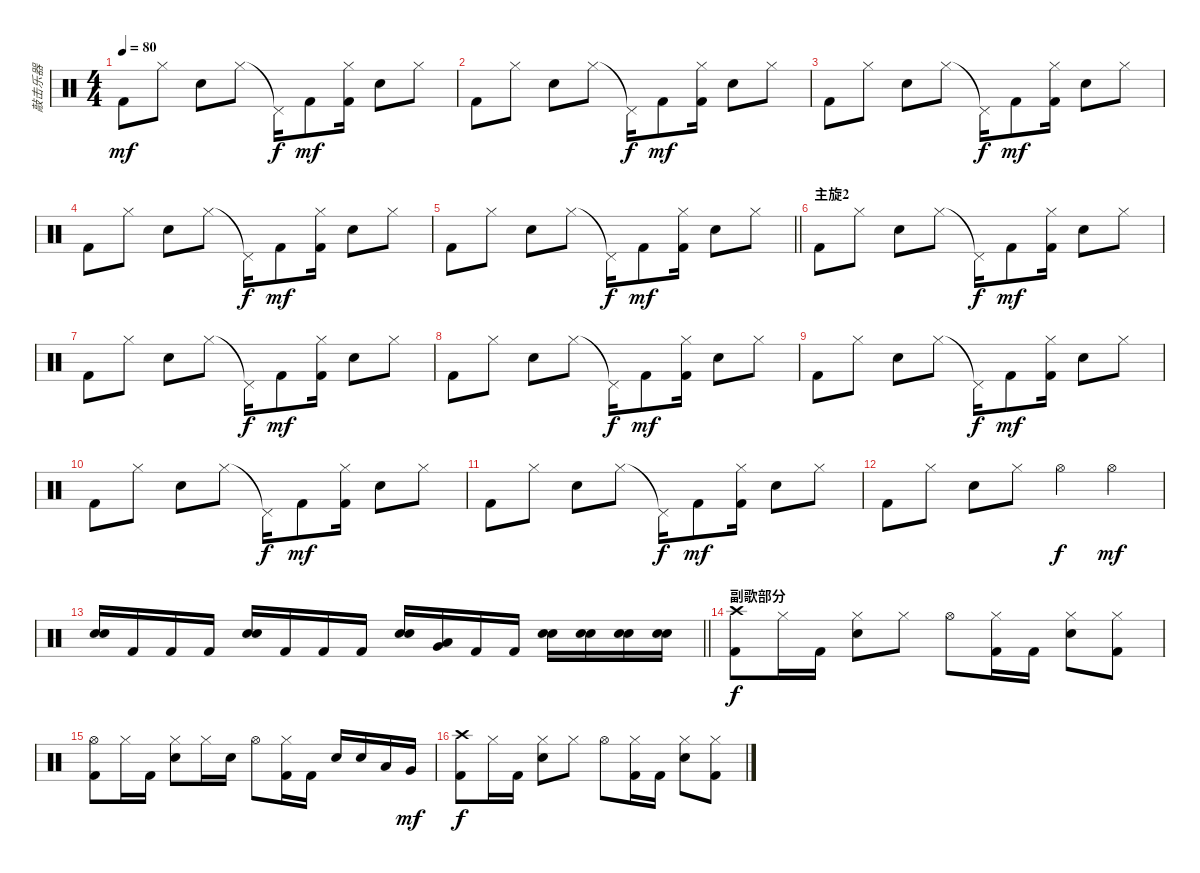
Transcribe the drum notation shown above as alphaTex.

\track ("敲击乐器" "敲击乐器") {instrument percussion}
\staff {score}
\articulation defaults
\ts (4 4)
\tempo 80
\clef neutral
\ks c "Kick (hit) 2".8{dy mf} "Hi-Hat (closed)".8 "Snare (hit) 2".8 "Hi-Hat (closed)".8 "Pedal Hi-Hat (hit)"{t}.16{dy f} "Kick (hit) 2".8{dy mf}
("Hi-Hat (closed)" "Kick (hit) 2").16 "Snare (hit) 2".8 "Hi-Hat (closed)".8 |
"Kick (hit) 2".8 "Hi-Hat (closed)".8 "Snare (hit) 2".8 "Hi-Hat (closed)".8 "Pedal Hi-Hat (hit)"{t}.16{dy f} "Kick (hit) 2".8{dy mf} ("Hi-Hat (closed)" "Kick (hit) 2").16 "Snare (hit) 2".8 "Hi-Hat (closed)".8 |
"Kick (hit) 2".8 "Hi-Hat (closed)".8 "Snare (hit) 2".8 "Hi-Hat (closed)".8 "Pedal Hi-Hat (hit)"{t}.16{dy f} "Kick (hit) 2".8{dy mf} ("Hi-Hat (closed)" "Kick (hit) 2").16 "Snare (hit) 2".8 "Hi-Hat (closed)".8 |
"Kick (hit) 2".8 "Hi-Hat (closed)".8 "Snare (hit) 2".8 "Hi-Hat (closed)".8 "Pedal Hi-Hat (hit)"{t}.16{dy f} "Kick (hit) 2".8{dy mf} ("Hi-Hat (closed)" "Kick (hit) 2").16 "Snare (hit) 2".8 "Hi-Hat (closed)".8 |
\barLineRight lightlight "Kick (hit) 2".8 "Hi-Hat (closed)".8 "Snare (hit) 2".8 "Hi-Hat (closed)".8 "Pedal Hi-Hat (hit)"{t}.16{dy f} "Kick (hit) 2".8{dy mf}
("Hi-Hat (closed)" "Kick (hit) 2").16 "Snare (hit) 2".8 "Hi-Hat (closed)".8 |
\section ("" "主旋2")
"Kick (hit) 2".8 "Hi-Hat (closed)".8 "Snare (hit) 2".8 "Hi-Hat (closed)".8 "Pedal Hi-Hat (hit)"{t}.16{dy f} "Kick (hit) 2".8{dy mf} ("Hi-Hat (closed)" "Kick (hit) 2").16 "Snare (hit) 2".8 "Hi-Hat (closed)".8 |
"Kick (hit) 2".8 "Hi-Hat (closed)".8 "Snare (hit) 2".8 "Hi-Hat (closed)".8 "Pedal Hi-Hat (hit)"{t}.16{dy f} "Kick (hit) 2".8{dy mf} ("Hi-Hat (closed)" "Kick (hit) 2").16 "Snare (hit) 2".8 "Hi-Hat (closed)".8 |
"Kick (hit) 2".8 "Hi-Hat (closed)".8 "Snare (hit) 2".8 "Hi-Hat (closed)".8 "Pedal Hi-Hat (hit)"{t}.16{dy f} "Kick (hit) 2".8{dy mf} ("Hi-Hat (closed)" "Kick (hit) 2").16 "Snare (hit) 2".8 "Hi-Hat (closed)".8 |
"Kick (hit) 2".8 "Hi-Hat (closed)".8 "Snare (hit) 2".8 "Hi-Hat (closed)".8 "Pedal Hi-Hat (hit)"{t}.16{dy f} "Kick (hit) 2".8{dy mf} ("Hi-Hat (closed)" "Kick (hit) 2").16 "Snare (hit) 2".8 "Hi-Hat (closed)".8 |
"Kick (hit) 2".8 "Hi-Hat (closed)".8 "Snare (hit) 2".8 "Hi-Hat (closed)".8 "Pedal Hi-Hat (hit)"{t}.16{dy f} "Kick (hit) 2".8{dy mf} ("Hi-Hat (closed)" "Kick (hit) 2").16 "Snare (hit) 2".8 "Hi-Hat (closed)".8 |
"Kick (hit) 2".8 "Hi-Hat (closed)".8 "Snare (hit) 2".8 "Hi-Hat (closed)".8 "Pedal Hi-Hat (hit)"{t}.16{dy f} "Kick (hit) 2".8{dy mf} ("Hi-Hat (closed)" "Kick (hit) 2").16 "Snare (hit) 2".8 "Hi-Hat (closed)".8 |
"Kick (hit) 2".8 "Hi-Hat (closed)".8 "Snare (hit) 2".8 "Hi-Hat (closed)".8 "Hi-Hat (open)".4{dy f} "Hi-Hat (open)".4{dy mf} |
\barLineRight lightlight
("Electric Snare (hit)" "Snare (hit) 2").16 "Kick (hit) 2".16 "Kick (hit) 2".16 "Kick (hit) 2".16 ("Electric Snare (hit)" "Snare (hit) 2").16 "Kick (hit) 2".16 "Kick (hit) 2".16 "Kick (hit) 2".16 ("Electric Snare (hit)" "Snare (hit) 2").16 ("Very Low Tom (hit)" "Low Tom (hit)").16 "Kick (hit) 2".16 "Kick (hit) 2".16 ("Electric Snare (hit)" "Snare (hit) 2").16 ("Electric Snare (hit)" "Snare (hit) 2").16 ("Electric Snare (hit)" "Snare (hit) 2").16 ("Electric Snare (hit)" "Snare (hit) 2").16 |
\section ("" "副歌部分")
("Crash high (hit)" "Kick (hit) 2").8{dy f} "Hi-Hat (closed)".16 "Kick (hit) 2".16 ("Hi-Hat (closed)" "Snare (hit) 2").8 "Hi-Hat (closed)".8 "Hi-Hat (open)".8 ("Hi-Hat (closed)" "Kick (hit) 2").16 "Kick (hit) 2".16 ("Hi-Hat (closed)" "Snare (hit) 2").8 ("Hi-Hat (closed)" "Kick (hit) 2").8 |
("Hi-Hat (open)" "Kick (hit) 2").8 "Hi-Hat (closed)".16 "Kick (hit) 2".16 ("Hi-Hat (closed)" "Snare (hit) 2").8 "Hi-Hat (closed)".16 "Snare (hit) 2".16 "Hi-Hat (open)".8 ("Hi-Hat (closed)" "Kick (hit) 2").16 "Kick (hit) 2".16 "Snare (hit) 2".16 "Snare (hit) 2".16 "Low Tom (hit)".16 "Very Low Tom (hit)".16{dy mf} |
("Crash high (hit)" "Kick (hit) 2").8{dy f} "Hi-Hat (closed)".16 "Kick (hit) 2".16 ("Hi-Hat (closed)" "Snare (hit) 2").8 "Hi-Hat (closed)".8 "Hi-Hat (open)".8 ("Hi-Hat (closed)" "Kick (hit) 2").16 "Kick (hit) 2".16 ("Hi-Hat (closed)" "Snare (hit) 2").8 ("Hi-Hat (closed)" "Kick (hit) 2").8
